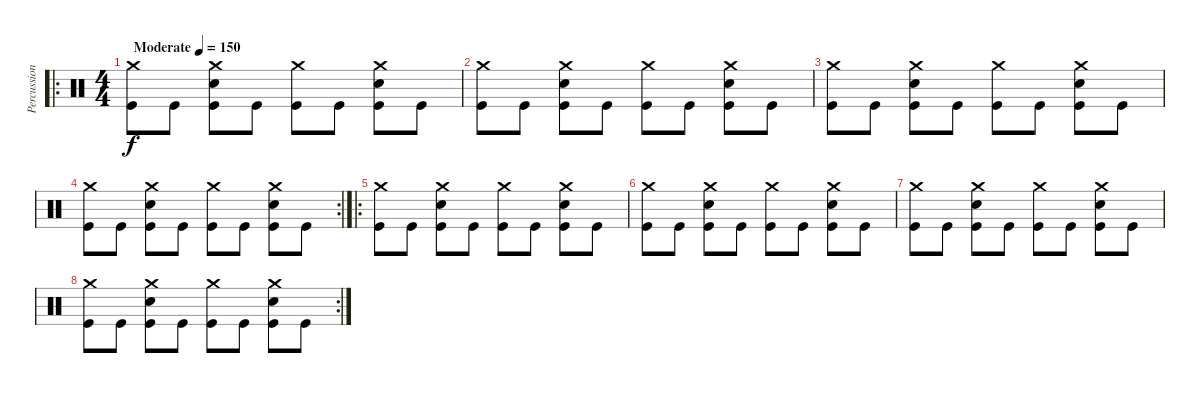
\track ("Percussion" "Percussion") {instrument percussion}
\staff {score}
\articulation defaults
\ro
\ts (4 4)
\tempo (150 "Moderate")
\clef neutral
\ks c
("Crash medium (hit)" "Kick (hit)").8{dy f} "Kick (hit)".8 ("Crash medium (hit)" "Snare (hit) 2" "Kick (hit)").8 "Kick (hit)".8 ("Crash medium (hit)" "Kick (hit)").8 "Kick (hit)".8 ("Crash medium (hit)" "Snare (hit) 2" "Kick (hit)").8 "Kick (hit)".8 |
("Crash medium (hit)" "Kick (hit)").8 "Kick (hit)".8 ("Crash medium (hit)" "Snare (hit) 2" "Kick (hit)").8 "Kick (hit)".8 ("Crash medium (hit)" "Kick (hit)").8 "Kick (hit)".8 ("Crash medium (hit)" "Snare (hit) 2" "Kick (hit)").8 "Kick (hit)".8 |
("Crash medium (hit)" "Kick (hit)").8 "Kick (hit)".8 ("Crash medium (hit)" "Snare (hit) 2" "Kick (hit)").8 "Kick (hit)".8 ("Crash medium (hit)" "Kick (hit)").8 "Kick (hit)".8 ("Crash medium (hit)" "Snare (hit) 2" "Kick (hit)").8 "Kick (hit)".8 |
\rc 2
("Crash medium (hit)" "Kick (hit)").8 "Kick (hit)".8 ("Crash medium (hit)" "Snare (hit) 2" "Kick (hit)").8 "Kick (hit)".8 ("Crash medium (hit)" "Kick (hit)").8 "Kick (hit)".8 ("Crash medium (hit)" "Snare (hit) 2" "Kick (hit)").8 "Kick (hit)".8 |
\ro
("Crash medium (hit)" "Kick (hit)").8 "Kick (hit)".8 ("Crash medium (hit)" "Snare (hit) 2" "Kick (hit)").8 "Kick (hit)".8 ("Crash medium (hit)" "Kick (hit)").8 "Kick (hit)".8 ("Crash medium (hit)" "Snare (hit) 2" "Kick (hit)").8 "Kick (hit)".8 |
("Crash medium (hit)" "Kick (hit)").8 "Kick (hit)".8 ("Crash medium (hit)" "Snare (hit) 2" "Kick (hit)").8 "Kick (hit)".8 ("Crash medium (hit)" "Kick (hit)").8 "Kick (hit)".8 ("Crash medium (hit)" "Snare (hit) 2" "Kick (hit)").8 "Kick (hit)".8 |
("Crash medium (hit)" "Kick (hit)").8 "Kick (hit)".8 ("Crash medium (hit)" "Snare (hit) 2" "Kick (hit)").8 "Kick (hit)".8 ("Crash medium (hit)" "Kick (hit)").8 "Kick (hit)".8 ("Crash medium (hit)" "Snare (hit) 2" "Kick (hit)").8 "Kick (hit)".8 |
\rc 2
("Crash medium (hit)" "Kick (hit)").8 "Kick (hit)".8 ("Crash medium (hit)" "Snare (hit) 2" "Kick (hit)").8 "Kick (hit)".8 ("Crash medium (hit)" "Kick (hit)").8 "Kick (hit)".8 ("Crash medium (hit)" "Snare (hit) 2" "Kick (hit)").8 "Kick (hit)".8
